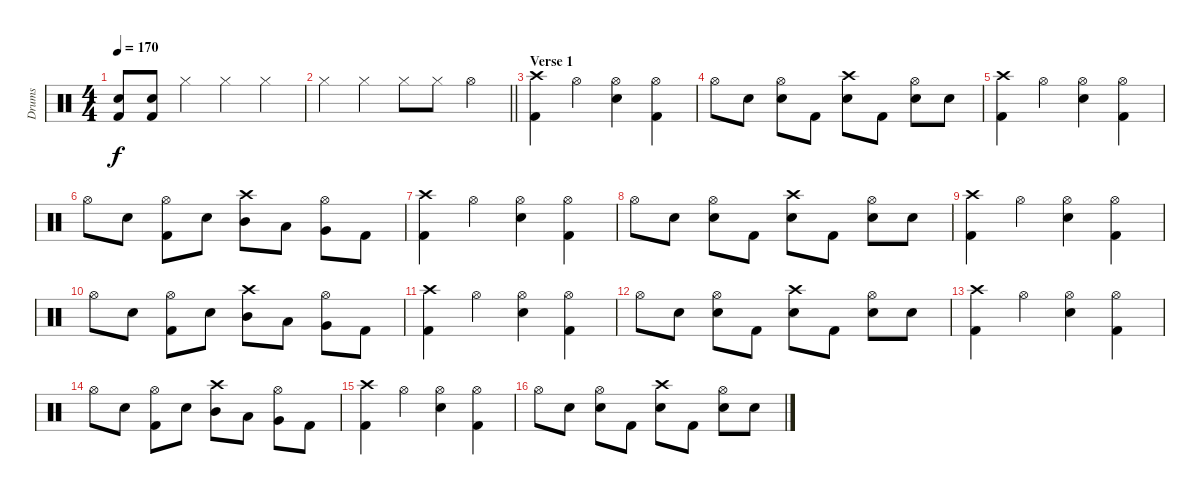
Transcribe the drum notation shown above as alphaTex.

\track ("Drums" "Drums") {instrument percussion}
\staff {score}
\articulation defaults
\ts (4 4)
\tempo 170
\clef neutral
\ks c
("Snare (hit) 2" "Kick (hit) 2").8{dy f} ("Snare (hit) 2" "Kick (hit) 2").8 "Hi-Hat (closed)".4 "Hi-Hat (closed)".4 "Hi-Hat (closed)".4 |
\barLineRight lightlight "Hi-Hat (closed)".4 "Hi-Hat (closed)".4 "Hi-Hat (closed)".8 "Hi-Hat (closed)".8 "Hi-Hat (open)".4
|
\section ("" "Verse 1 ")
("Crash high (hit)" "Kick (hit) 2").4 "Hi-Hat (open)".4 ("Hi-Hat (open)" "Snare (hit) 2").4 ("Hi-Hat (open)" "Kick (hit) 2").4 |
"Hi-Hat (open)".8 "Snare (hit) 2".8 ("Hi-Hat (open)" "Snare (hit) 2").8 "Kick (hit) 2".8 ("Crash high (hit)" "Snare (hit) 2").8 "Kick (hit) 2".8 ("Hi-Hat (open)" "Snare (hit) 2").8 "Snare (hit) 2".8 |
("Crash high (hit)" "Kick (hit) 2").4 "Hi-Hat (open)".4 ("Hi-Hat (open)" "Snare (hit) 2").4 ("Hi-Hat (open)" "Kick (hit) 2").4 |
"Hi-Hat (open)".8 "Snare (hit) 2".8 ("Hi-Hat (open)" "Kick (hit) 2").8 "Snare (hit) 2".8 ("Crash high (hit)" "Mid Tom (hit)").8 "Low Tom (hit)".8 ("Hi-Hat (open)" "Very Low Tom (hit)").8 "Kick (hit) 2".8 |
("Crash high (hit)" "Kick (hit) 2").4 "Hi-Hat (open)".4 ("Hi-Hat (open)" "Snare (hit) 2").4 ("Hi-Hat (open)" "Kick (hit) 2").4 |
"Hi-Hat (open)".8 "Snare (hit) 2".8 ("Hi-Hat (open)" "Snare (hit) 2").8 "Kick (hit) 2".8 ("Crash high (hit)" "Snare (hit) 2").8 "Kick (hit) 2".8 ("Hi-Hat (open)" "Snare (hit) 2").8 "Snare (hit) 2".8 |
("Crash high (hit)" "Kick (hit) 2").4 "Hi-Hat (open)".4 ("Hi-Hat (open)" "Snare (hit) 2").4 ("Hi-Hat (open)" "Kick (hit) 2").4 |
"Hi-Hat (open)".8 "Snare (hit) 2".8 ("Hi-Hat (open)" "Kick (hit) 2").8 "Snare (hit) 2".8 ("Crash high (hit)" "Mid Tom (hit)").8 "Low Tom (hit)".8 ("Hi-Hat (open)" "Very Low Tom (hit)").8 "Kick (hit) 2".8 |
("Crash high (hit)" "Kick (hit) 2").4 "Hi-Hat (open)".4 ("Hi-Hat (open)" "Snare (hit) 2").4 ("Hi-Hat (open)" "Kick (hit) 2").4 |
"Hi-Hat (open)".8 "Snare (hit) 2".8 ("Hi-Hat (open)" "Snare (hit) 2").8 "Kick (hit) 2".8 ("Crash high (hit)" "Snare (hit) 2").8 "Kick (hit) 2".8 ("Hi-Hat (open)" "Snare (hit) 2").8 "Snare (hit) 2".8 |
("Crash high (hit)" "Kick (hit) 2").4 "Hi-Hat (open)".4 ("Hi-Hat (open)" "Snare (hit) 2").4 ("Hi-Hat (open)" "Kick (hit) 2").4 |
"Hi-Hat (open)".8 "Snare (hit) 2".8 ("Hi-Hat (open)" "Kick (hit) 2").8 "Snare (hit) 2".8 ("Crash high (hit)" "Mid Tom (hit)").8 "Low Tom (hit)".8 ("Hi-Hat (open)" "Very Low Tom (hit)").8 "Kick (hit) 2".8 |
("Crash high (hit)" "Kick (hit) 2").4 "Hi-Hat (open)".4 ("Hi-Hat (open)" "Snare (hit) 2").4 ("Hi-Hat (open)" "Kick (hit) 2").4 |
"Hi-Hat (open)".8 "Snare (hit) 2".8 ("Hi-Hat (open)" "Snare (hit) 2").8 "Kick (hit) 2".8 ("Crash high (hit)" "Snare (hit) 2").8 "Kick (hit) 2".8 ("Hi-Hat (open)" "Snare (hit) 2").8 "Snare (hit) 2".8
